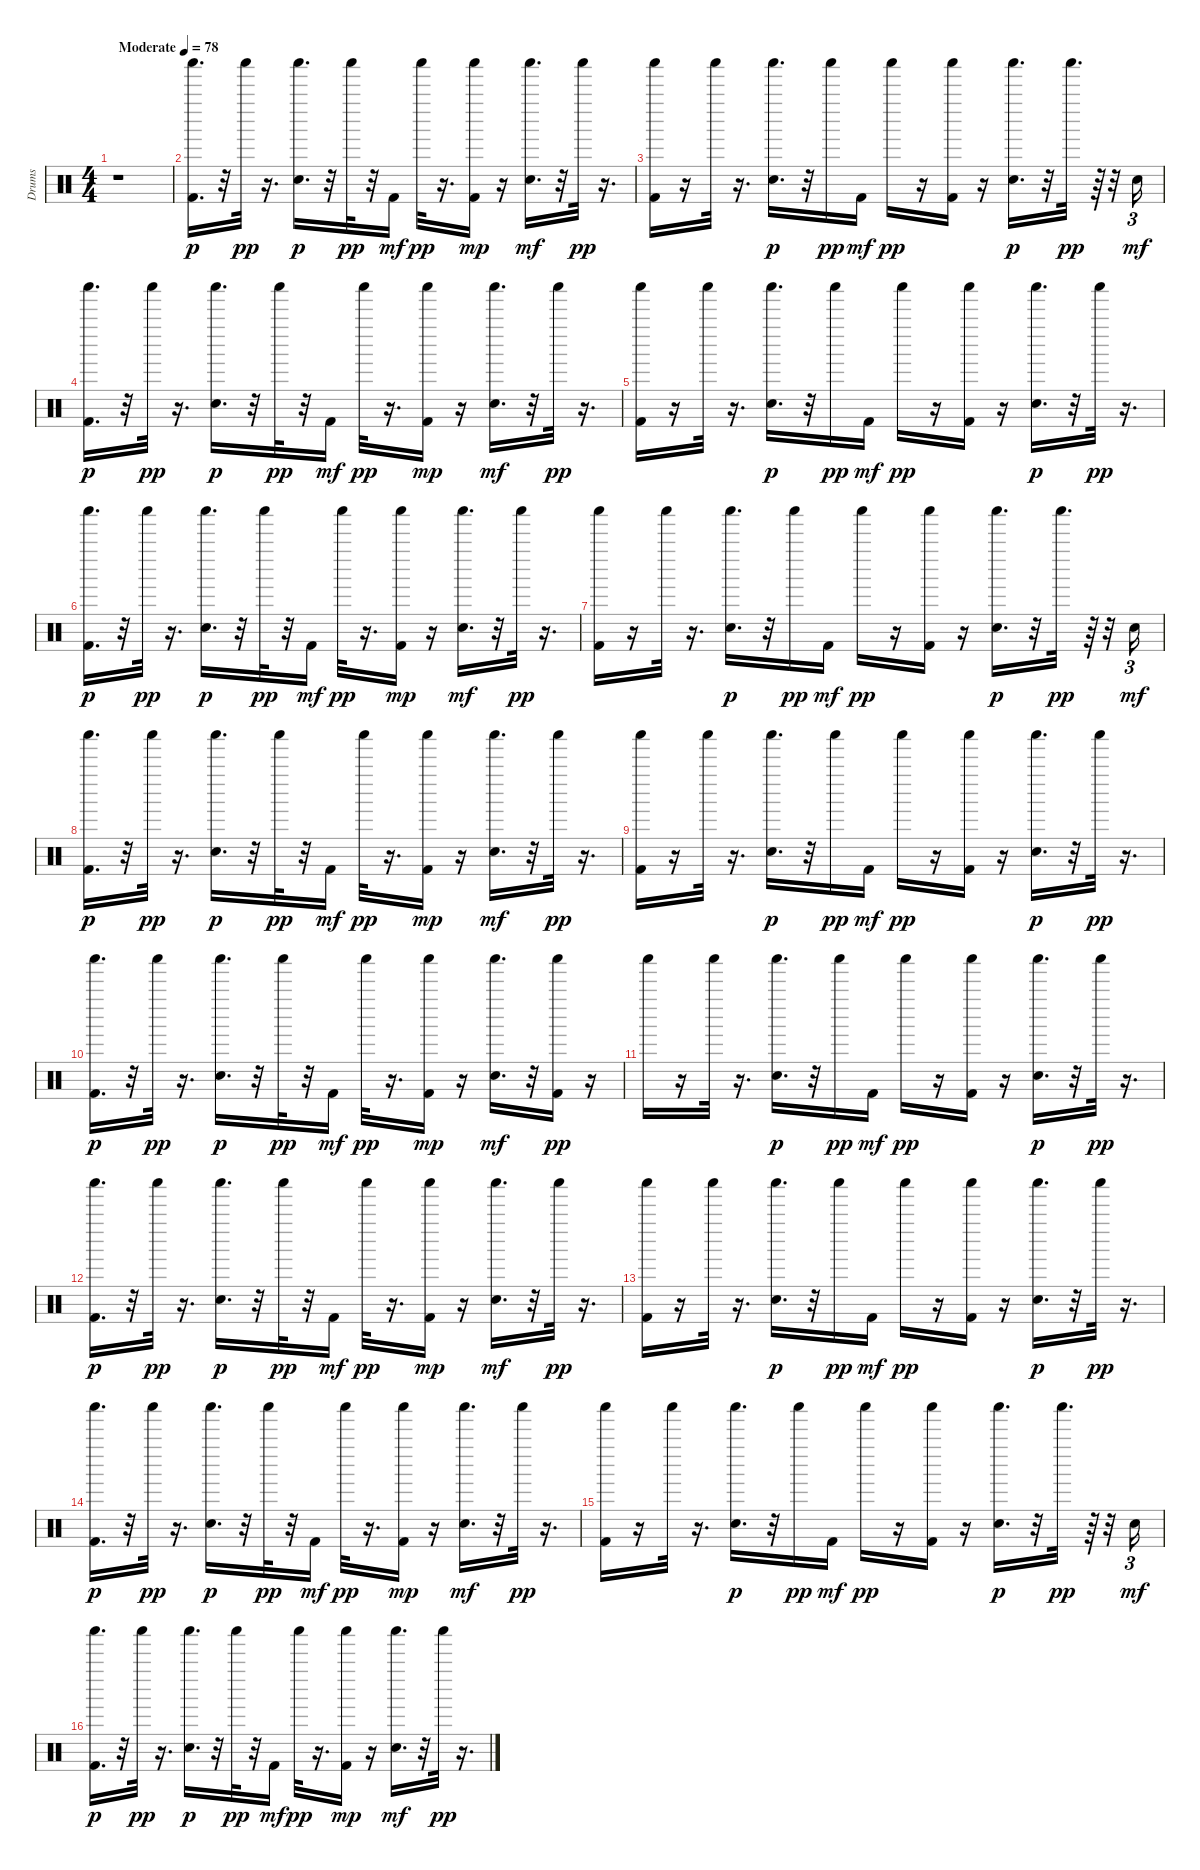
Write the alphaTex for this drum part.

\track ("Drums" "Drums") {instrument percussion}
\staff {score}
\articulation defaults
\ts (4 4)
\tempo (78 "Moderate")
\clef neutral
\ks c
r.1{dy p} |
("Kick (hit) 2" "Shaker (hit)").16{d} r.32 "Shaker (hit)".32{dy pp} r.16{d} ("Snare (hit) 2" "Shaker (hit)").16{d dy p} r.32 "Shaker (hit)".32{dy pp} r.32 "Kick (hit) 2".16{dy mf} "Shaker (hit)".32{dy pp} r.16{d} ("Shaker (hit)" "Kick (hit) 2").16{dy mp} r.16 ("Shaker (hit)" "Snare (hit) 2").16{d dy mf} r.32 "Shaker (hit)".32{dy pp} r.16{d} |
("Kick (hit) 2" "Shaker (hit)").16 r.16 "Shaker (hit)".32 r.16{d} ("Snare (hit) 2" "Shaker (hit)").16{d dy p} r.32 "Shaker (hit)".16{dy pp} "Kick (hit) 2".16{dy mf} "Shaker (hit)".16{dy pp} r.16 ("Kick (hit) 2" "Shaker (hit)").16 r.16 ("Snare (hit) 2" "Shaker (hit)").16{d dy p} r.32 "Shaker (hit)".32{d dy pp} r.64 r.32 "Snare (hit) 2".16{tu (3 2) dy mf} |
("Kick (hit) 2" "Shaker (hit)").16{d dy p} r.32 "Shaker (hit)".32{dy pp} r.16{d} ("Snare (hit) 2" "Shaker (hit)").16{d dy p} r.32 "Shaker (hit)".32{dy pp} r.32 "Kick (hit) 2".16{dy mf} "Shaker (hit)".32{dy pp} r.16{d} ("Shaker (hit)" "Kick (hit) 2").16{dy mp} r.16 ("Shaker (hit)" "Snare (hit) 2").16{d dy mf} r.32 "Shaker (hit)".32{dy pp} r.16{d} |
("Kick (hit) 2" "Shaker (hit)").16 r.16 "Shaker (hit)".32 r.16{d} ("Snare (hit) 2" "Shaker (hit)").16{d dy p} r.32 "Shaker (hit)".16{dy pp} "Kick (hit) 2".16{dy mf} "Shaker (hit)".16{dy pp} r.16 ("Kick (hit) 2" "Shaker (hit)").16 r.16 ("Snare (hit) 2" "Shaker (hit)").16{d dy p} r.32 "Shaker (hit)".32{dy pp} r.16{d} |
("Kick (hit) 2" "Shaker (hit)").16{d dy p} r.32 "Shaker (hit)".32{dy pp} r.16{d} ("Snare (hit) 2" "Shaker (hit)").16{d dy p} r.32 "Shaker (hit)".32{dy pp} r.32 "Kick (hit) 2".16{dy mf} "Shaker (hit)".32{dy pp} r.16{d} ("Shaker (hit)" "Kick (hit) 2").16{dy mp} r.16 ("Shaker (hit)" "Snare (hit) 2").16{d dy mf} r.32 "Shaker (hit)".32{dy pp} r.16{d} |
("Kick (hit) 2" "Shaker (hit)").16 r.16 "Shaker (hit)".32 r.16{d} ("Snare (hit) 2" "Shaker (hit)").16{d dy p} r.32 "Shaker (hit)".16{dy pp} "Kick (hit) 2".16{dy mf} "Shaker (hit)".16{dy pp} r.16 ("Kick (hit) 2" "Shaker (hit)").16 r.16 ("Snare (hit) 2" "Shaker (hit)").16{d dy p} r.32 "Shaker (hit)".32{d dy pp} r.64 r.32 "Snare (hit) 2".16{tu (3 2) dy mf} |
("Kick (hit) 2" "Shaker (hit)").16{d dy p} r.32 "Shaker (hit)".32{dy pp} r.16{d} ("Snare (hit) 2" "Shaker (hit)").16{d dy p} r.32 "Shaker (hit)".32{dy pp} r.32 "Kick (hit) 2".16{dy mf} "Shaker (hit)".32{dy pp} r.16{d} ("Shaker (hit)" "Kick (hit) 2").16{dy mp} r.16 ("Shaker (hit)" "Snare (hit) 2").16{d dy mf} r.32 "Shaker (hit)".32{dy pp} r.16{d} |
("Kick (hit) 2" "Shaker (hit)").16 r.16 "Shaker (hit)".32 r.16{d} ("Snare (hit) 2" "Shaker (hit)").16{d dy p} r.32 "Shaker (hit)".16{dy pp} "Kick (hit) 2".16{dy mf} "Shaker (hit)".16{dy pp} r.16 ("Kick (hit) 2" "Shaker (hit)").16 r.16 ("Snare (hit) 2" "Shaker (hit)").16{d dy p} r.32 "Shaker (hit)".32{dy pp} r.16{d} |
("Kick (hit) 2" "Shaker (hit)").16{d dy p} r.32 "Shaker (hit)".32{dy pp} r.16{d} ("Snare (hit) 2" "Shaker (hit)").16{d dy p} r.32 "Shaker (hit)".32{dy pp} r.32 "Kick (hit) 2".16{dy mf} "Shaker (hit)".32{dy pp} r.16{d} ("Shaker (hit)" "Kick (hit) 2").16{dy mp} r.16 ("Shaker (hit)" "Snare (hit) 2").16{d dy mf} r.32 ("Kick (hit) 2" "Shaker (hit)").16{dy pp} r.16 |
"Shaker (hit)".16 r.16 "Shaker (hit)".32 r.16{d} ("Snare (hit) 2" "Shaker (hit)").16{d dy p} r.32 "Shaker (hit)".16{dy pp} "Kick (hit) 2".16{dy mf} "Shaker (hit)".16{dy pp} r.16 ("Kick (hit) 2" "Shaker (hit)").16 r.16 ("Snare (hit) 2" "Shaker (hit)").16{d dy p} r.32 "Shaker (hit)".32{dy pp} r.16{d} |
("Kick (hit) 2" "Shaker (hit)").16{d dy p} r.32 "Shaker (hit)".32{dy pp} r.16{d} ("Snare (hit) 2" "Shaker (hit)").16{d dy p} r.32 "Shaker (hit)".32{dy pp} r.32 "Kick (hit) 2".16{dy mf} "Shaker (hit)".32{dy pp} r.16{d} ("Shaker (hit)" "Kick (hit) 2").16{dy mp} r.16 ("Shaker (hit)" "Snare (hit) 2").16{d dy mf} r.32 "Shaker (hit)".32{dy pp} r.16{d} |
("Kick (hit) 2" "Shaker (hit)").16 r.16 "Shaker (hit)".32 r.16{d} ("Snare (hit) 2" "Shaker (hit)").16{d dy p} r.32 "Shaker (hit)".16{dy pp} "Kick (hit) 2".16{dy mf} "Shaker (hit)".16{dy pp} r.16 ("Kick (hit) 2" "Shaker (hit)").16 r.16 ("Snare (hit) 2" "Shaker (hit)").16{d dy p} r.32 "Shaker (hit)".32{dy pp} r.16{d} |
("Kick (hit) 2" "Shaker (hit)").16{d dy p} r.32 "Shaker (hit)".32{dy pp} r.16{d} ("Snare (hit) 2" "Shaker (hit)").16{d dy p} r.32 "Shaker (hit)".32{dy pp} r.32 "Kick (hit) 2".16{dy mf} "Shaker (hit)".32{dy pp} r.16{d} ("Shaker (hit)" "Kick (hit) 2").16{dy mp} r.16 ("Shaker (hit)" "Snare (hit) 2").16{d dy mf} r.32 "Shaker (hit)".32{dy pp} r.16{d} |
("Kick (hit) 2" "Shaker (hit)").16 r.16 "Shaker (hit)".32 r.16{d} ("Snare (hit) 2" "Shaker (hit)").16{d dy p} r.32 "Shaker (hit)".16{dy pp} "Kick (hit) 2".16{dy mf} "Shaker (hit)".16{dy pp} r.16 ("Kick (hit) 2" "Shaker (hit)").16 r.16 ("Snare (hit) 2" "Shaker (hit)").16{d dy p} r.32 "Shaker (hit)".32{d dy pp} r.64 r.32 "Snare (hit) 2".16{tu (3 2) dy mf} |
("Kick (hit) 2" "Shaker (hit)").16{d dy p} r.32 "Shaker (hit)".32{dy pp} r.16{d} ("Snare (hit) 2" "Shaker (hit)").16{d dy p} r.32 "Shaker (hit)".32{dy pp} r.32 "Kick (hit) 2".16{dy mf} "Shaker (hit)".32{dy pp} r.16{d} ("Shaker (hit)" "Kick (hit) 2").16{dy mp} r.16 ("Shaker (hit)" "Snare (hit) 2").16{d dy mf} r.32 "Shaker (hit)".32{dy pp} r.16{d}
